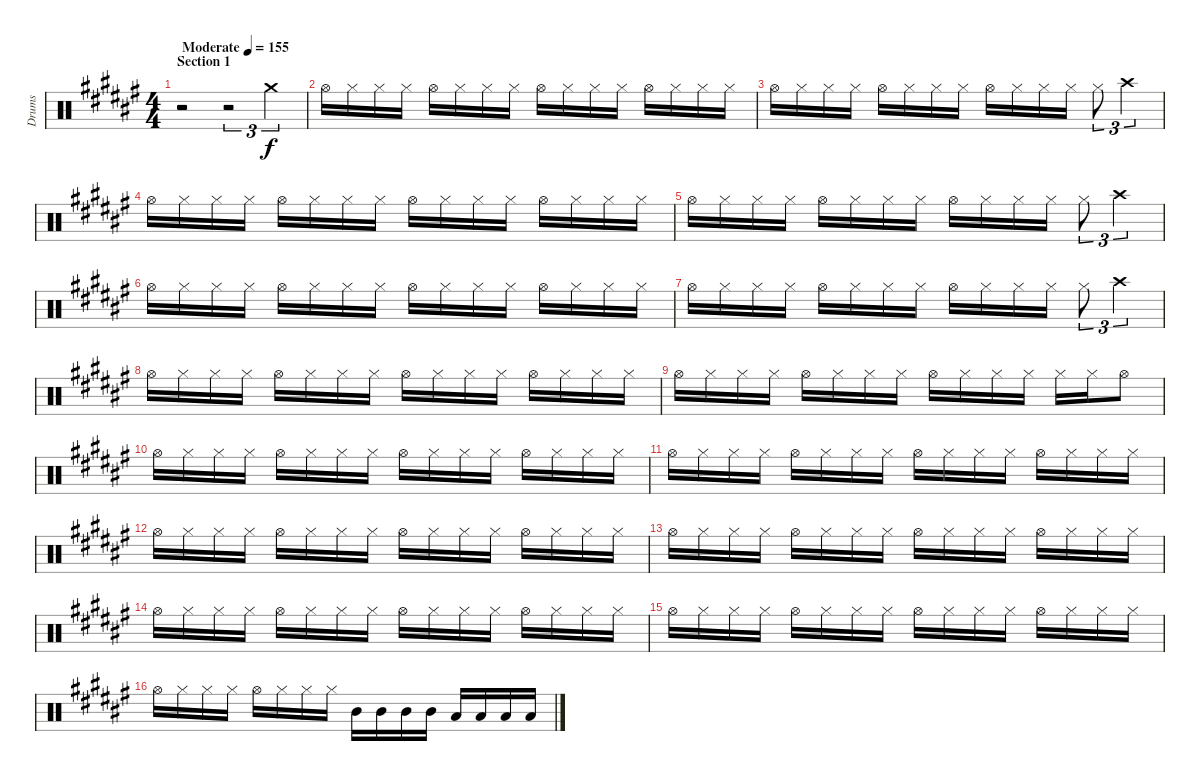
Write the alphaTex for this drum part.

\track ("Drums" "Drums") {instrument percussion}
\staff {score}
\articulation defaults
\ts (4 4)
\section ("" "Section 1")
\tempo (155 "Moderate")
\clef neutral
\ks f#
r.2{dy f} r.2{tu (3 2)} "Crash medium (hit)".4{tu (3 2)} |
"Hi-Hat (open)".16 "Hi-Hat (closed)".16 "Hi-Hat (closed)".16 "Hi-Hat (closed)".16 "Hi-Hat (open)".16 "Hi-Hat (closed)".16 "Hi-Hat (closed)".16 "Hi-Hat (closed)".16 "Hi-Hat (open)".16 "Hi-Hat (closed)".16 "Hi-Hat (closed)".16 "Hi-Hat (closed)".16 "Hi-Hat (open)".16 "Hi-Hat (closed)".16 "Hi-Hat (closed)".16 "Hi-Hat (closed)".16 |
"Hi-Hat (open)".16 "Hi-Hat (closed)".16 "Hi-Hat (closed)".16 "Hi-Hat (closed)".16 "Hi-Hat (open)".16 "Hi-Hat (closed)".16 "Hi-Hat (closed)".16 "Hi-Hat (closed)".16 "Hi-Hat (open)".16 "Hi-Hat (closed)".16 "Hi-Hat (closed)".16 "Hi-Hat (closed)".16 "Hi-Hat (closed)".8{tu (3 2)} "Crash high (hit)".4{tu (3 2)} |
"Hi-Hat (open)".16 "Hi-Hat (closed)".16 "Hi-Hat (closed)".16 "Hi-Hat (closed)".16 "Hi-Hat (open)".16 "Hi-Hat (closed)".16 "Hi-Hat (closed)".16 "Hi-Hat (closed)".16 "Hi-Hat (open)".16 "Hi-Hat (closed)".16 "Hi-Hat (closed)".16 "Hi-Hat (closed)".16 "Hi-Hat (open)".16 "Hi-Hat (closed)".16 "Hi-Hat (closed)".16 "Hi-Hat (closed)".16 |
"Hi-Hat (open)".16 "Hi-Hat (closed)".16 "Hi-Hat (closed)".16 "Hi-Hat (closed)".16 "Hi-Hat (open)".16 "Hi-Hat (closed)".16 "Hi-Hat (closed)".16 "Hi-Hat (closed)".16 "Hi-Hat (open)".16 "Hi-Hat (closed)".16 "Hi-Hat (closed)".16 "Hi-Hat (closed)".16 "Hi-Hat (closed)".8{tu (3 2)} "Crash high (hit)".4{tu (3 2)} |
"Hi-Hat (open)".16 "Hi-Hat (closed)".16 "Hi-Hat (closed)".16 "Hi-Hat (closed)".16 "Hi-Hat (open)".16 "Hi-Hat (closed)".16 "Hi-Hat (closed)".16 "Hi-Hat (closed)".16 "Hi-Hat (open)".16 "Hi-Hat (closed)".16 "Hi-Hat (closed)".16 "Hi-Hat (closed)".16 "Hi-Hat (open)".16 "Hi-Hat (closed)".16 "Hi-Hat (closed)".16 "Hi-Hat (closed)".16 |
"Hi-Hat (open)".16 "Hi-Hat (closed)".16 "Hi-Hat (closed)".16 "Hi-Hat (closed)".16 "Hi-Hat (open)".16 "Hi-Hat (closed)".16 "Hi-Hat (closed)".16 "Hi-Hat (closed)".16 "Hi-Hat (open)".16 "Hi-Hat (closed)".16 "Hi-Hat (closed)".16 "Hi-Hat (closed)".16 "Hi-Hat (closed)".8{tu (3 2)} "Crash high (hit)".4{tu (3 2)} |
"Hi-Hat (open)".16 "Hi-Hat (closed)".16 "Hi-Hat (closed)".16 "Hi-Hat (closed)".16 "Hi-Hat (open)".16 "Hi-Hat (closed)".16 "Hi-Hat (closed)".16 "Hi-Hat (closed)".16 "Hi-Hat (open)".16 "Hi-Hat (closed)".16 "Hi-Hat (closed)".16 "Hi-Hat (closed)".16 "Hi-Hat (open)".16 "Hi-Hat (closed)".16 "Hi-Hat (closed)".16 "Hi-Hat (closed)".16 |
"Hi-Hat (open)".16 "Hi-Hat (closed)".16 "Hi-Hat (closed)".16 "Hi-Hat (closed)".16 "Hi-Hat (open)".16 "Hi-Hat (closed)".16 "Hi-Hat (closed)".16 "Hi-Hat (closed)".16 "Hi-Hat (open)".16 "Hi-Hat (closed)".16 "Hi-Hat (closed)".16 "Hi-Hat (closed)".16 "Hi-Hat (closed)".16 "Hi-Hat (closed)".16 "Hi-Hat (open)".8 |
"Hi-Hat (open)".16 "Hi-Hat (closed)".16 "Hi-Hat (closed)".16 "Hi-Hat (closed)".16 "Hi-Hat (open)".16 "Hi-Hat (closed)".16 "Hi-Hat (closed)".16 "Hi-Hat (closed)".16 "Hi-Hat (open)".16 "Hi-Hat (closed)".16 "Hi-Hat (closed)".16 "Hi-Hat (closed)".16 "Hi-Hat (open)".16 "Hi-Hat (closed)".16 "Hi-Hat (closed)".16 "Hi-Hat (closed)".16 |
"Hi-Hat (open)".16 "Hi-Hat (closed)".16 "Hi-Hat (closed)".16 "Hi-Hat (closed)".16 "Hi-Hat (open)".16 "Hi-Hat (closed)".16 "Hi-Hat (closed)".16 "Hi-Hat (closed)".16 "Hi-Hat (open)".16 "Hi-Hat (closed)".16 "Hi-Hat (closed)".16 "Hi-Hat (closed)".16 "Hi-Hat (open)".16 "Hi-Hat (closed)".16 "Hi-Hat (closed)".16 "Hi-Hat (closed)".16 |
"Hi-Hat (open)".16 "Hi-Hat (closed)".16 "Hi-Hat (closed)".16 "Hi-Hat (closed)".16 "Hi-Hat (open)".16 "Hi-Hat (closed)".16 "Hi-Hat (closed)".16 "Hi-Hat (closed)".16 "Hi-Hat (open)".16 "Hi-Hat (closed)".16 "Hi-Hat (closed)".16 "Hi-Hat (closed)".16 "Hi-Hat (open)".16 "Hi-Hat (closed)".16 "Hi-Hat (closed)".16 "Hi-Hat (closed)".16 |
"Hi-Hat (open)".16 "Hi-Hat (closed)".16 "Hi-Hat (closed)".16 "Hi-Hat (closed)".16 "Hi-Hat (open)".16 "Hi-Hat (closed)".16 "Hi-Hat (closed)".16 "Hi-Hat (closed)".16 "Hi-Hat (open)".16 "Hi-Hat (closed)".16 "Hi-Hat (closed)".16 "Hi-Hat (closed)".16 "Hi-Hat (open)".16 "Hi-Hat (closed)".16 "Hi-Hat (closed)".16 "Hi-Hat (closed)".16 |
"Hi-Hat (open)".16 "Hi-Hat (closed)".16 "Hi-Hat (closed)".16 "Hi-Hat (closed)".16 "Hi-Hat (open)".16 "Hi-Hat (closed)".16 "Hi-Hat (closed)".16 "Hi-Hat (closed)".16 "Hi-Hat (open)".16 "Hi-Hat (closed)".16 "Hi-Hat (closed)".16 "Hi-Hat (closed)".16 "Hi-Hat (open)".16 "Hi-Hat (closed)".16 "Hi-Hat (closed)".16 "Hi-Hat (closed)".16 |
"Hi-Hat (open)".16 "Hi-Hat (closed)".16 "Hi-Hat (closed)".16 "Hi-Hat (closed)".16 "Hi-Hat (open)".16 "Hi-Hat (closed)".16 "Hi-Hat (closed)".16 "Hi-Hat (closed)".16 "Hi-Hat (open)".16 "Hi-Hat (closed)".16 "Hi-Hat (closed)".16 "Hi-Hat (closed)".16 "Hi-Hat (open)".16 "Hi-Hat (closed)".16 "Hi-Hat (closed)".16 "Hi-Hat (closed)".16 |
"Hi-Hat (open)".16 "Hi-Hat (closed)".16 "Hi-Hat (closed)".16 "Hi-Hat (closed)".16 "Hi-Hat (open)".16 "Hi-Hat (closed)".16 "Hi-Hat (closed)".16 "Hi-Hat (closed)".16 "Mid Tom (hit)".16 "Mid Tom (hit)".16 "Mid Tom (hit)".16 "Mid Tom (hit)".16 "Low Tom (hit)".16 "Low Tom (hit)".16 "Low Tom (hit)".16 "Low Tom (hit)".16
